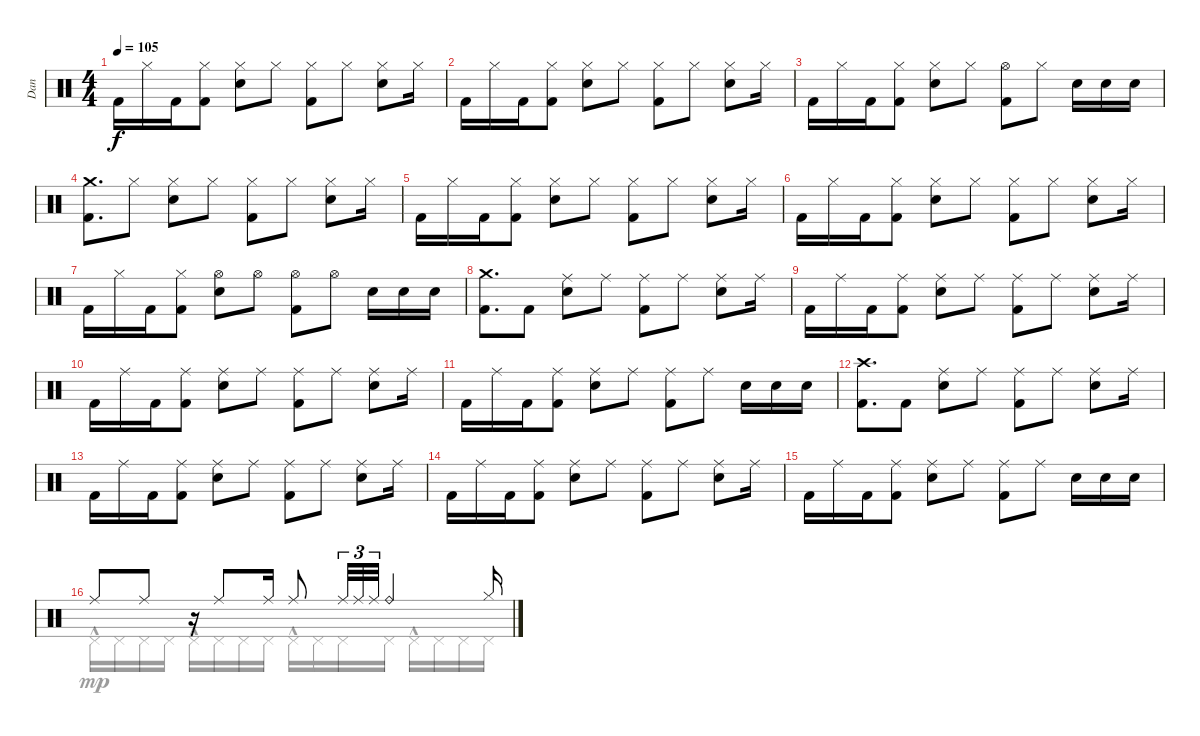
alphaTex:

\track ("Dan" "Dan") {instrument percussion}
\staff {score}
\articulation defaults
\voice
\ts (4 4)
\tempo 105
\clef neutral
\ks c "Kick (hit) 2".16{dy f} "Hi-Hat (closed)".16 "Kick (hit) 2".16
("Hi-Hat (closed)" "Kick (hit) 2").8 ("Hi-Hat (closed)" "Snare (hit) 2").8 "Hi-Hat (closed)".8 ("Hi-Hat (closed)" "Kick (hit) 2").8 "Hi-Hat (closed)".8 ("Hi-Hat (closed)" "Snare (hit) 2").8 "Hi-Hat (closed)".16 |
"Kick (hit) 2".16 "Hi-Hat (closed)".16 "Kick (hit) 2".16 ("Hi-Hat (closed)" "Kick (hit) 2").8 ("Hi-Hat (closed)" "Snare (hit) 2").8 "Hi-Hat (closed)".8 ("Hi-Hat (closed)" "Kick (hit) 2").8 "Hi-Hat (closed)".8 ("Hi-Hat (closed)" "Snare (hit) 2").8 "Hi-Hat (closed)".16 |
"Kick (hit) 2".16 "Hi-Hat (closed)".16 "Kick (hit) 2".16 ("Hi-Hat (closed)" "Kick (hit) 2").8 ("Hi-Hat (closed)" "Snare (hit) 2").8 "Hi-Hat (closed)".8 ("Hi-Hat (open)" "Kick (hit) 2").8 "Hi-Hat (closed)".8 "Snare (hit) 2".16 "Snare (hit) 2".16 "Snare (hit) 2".16 |
("Crash medium (hit)" "Kick (hit) 2").8{d} "Hi-Hat (closed)".8 ("Hi-Hat (closed)" "Snare (hit) 2").8 "Hi-Hat (closed)".8 ("Hi-Hat (closed)" "Kick (hit) 2").8 "Hi-Hat (closed)".8 ("Hi-Hat (closed)" "Snare (hit) 2").8 "Hi-Hat (closed)".16 |
"Kick (hit) 2".16 "Hi-Hat (closed)".16 "Kick (hit) 2".16 ("Hi-Hat (closed)" "Kick (hit) 2").8 ("Hi-Hat (closed)" "Snare (hit) 2").8 "Hi-Hat (closed)".8 ("Hi-Hat (closed)" "Kick (hit) 2").8 "Hi-Hat (closed)".8 ("Hi-Hat (closed)" "Snare (hit) 2").8 "Hi-Hat (closed)".16 |
"Kick (hit) 2".16 "Hi-Hat (closed)".16 "Kick (hit) 2".16 ("Hi-Hat (closed)" "Kick (hit) 2").8 ("Hi-Hat (closed)" "Snare (hit) 2").8 "Hi-Hat (closed)".8 ("Hi-Hat (closed)" "Kick (hit) 2").8 "Hi-Hat (closed)".8 ("Hi-Hat (closed)" "Snare (hit) 2").8 "Hi-Hat (closed)".16 |
"Kick (hit) 2".16 "Hi-Hat (closed)".16 "Kick (hit) 2".16 ("Hi-Hat (closed)" "Kick (hit) 2").8 ("Hi-Hat (open)" "Snare (hit) 2").8 "Hi-Hat (open)".8 ("Hi-Hat (open)" "Kick (hit) 2").8 "Hi-Hat (open)".8 "Snare (hit) 2".16 "Snare (hit) 2".16 "Snare (hit) 2".16 |
("Crash medium (hit)" "Kick (hit) 2").8{d} "Kick (hit) 2".8 ("Ride (middle)" "Snare (hit) 2").8 "Ride (middle)".8 ("Ride (middle)" "Kick (hit) 2").8 "Ride (middle)".8 ("Ride (middle)" "Snare (hit) 2").8 "Ride (middle)".16 |
"Kick (hit) 2".16 "Ride (middle)".16 "Kick (hit) 2".16 ("Ride (middle)" "Kick (hit) 2").8 ("Ride (middle)" "Snare (hit) 2").8 "Ride (middle)".8 ("Ride (middle)" "Kick (hit) 2").8 "Ride (middle)".8 ("Ride (middle)" "Snare (hit) 2").8 "Ride (middle)".16 |
"Kick (hit) 2".16 "Ride (middle)".16 "Kick (hit) 2".16 ("Ride (middle)" "Kick (hit) 2").8 ("Ride (middle)" "Snare (hit) 2").8 "Ride (middle)".8 ("Ride (middle)" "Kick (hit) 2").8 "Ride (middle)".8 ("Ride (middle)" "Snare (hit) 2").8 "Ride (middle)".16 |
"Kick (hit) 2".16 "Ride (middle)".16 "Kick (hit) 2".16 ("Ride (middle)" "Kick (hit) 2").8 ("Ride (middle)" "Snare (hit) 2").8 "Ride (middle)".8 ("Ride (middle)" "Kick (hit) 2").8 "Ride (middle)".8 "Snare (hit) 2".16 "Snare (hit) 2".16 "Snare (hit) 2".16 |
("Crash high (hit)" "Kick (hit) 2").8{d} "Kick (hit) 2".8 ("Ride (middle)" "Snare (hit) 2").8 "Ride (middle)".8 ("Ride (middle)" "Kick (hit) 2").8 "Ride (middle)".8 ("Ride (middle)" "Snare (hit) 2").8 "Ride (middle)".16 |
"Kick (hit) 2".16 "Ride (middle)".16 "Kick (hit) 2".16 ("Ride (middle)" "Kick (hit) 2").8 ("Ride (middle)" "Snare (hit) 2").8 "Ride (middle)".8 ("Ride (middle)" "Kick (hit) 2").8 "Ride (middle)".8 ("Ride (middle)" "Snare (hit) 2").8 "Ride (middle)".16 |
"Kick (hit) 2".16 "Ride (middle)".16 "Kick (hit) 2".16 ("Ride (middle)" "Kick (hit) 2").8 ("Ride (middle)" "Snare (hit) 2").8 "Ride (middle)".8 ("Ride (middle)" "Kick (hit) 2").8 "Ride (middle)".8 ("Ride (middle)" "Snare (hit) 2").8 "Ride (middle)".16 |
"Kick (hit) 2".16 "Ride (middle)".16 "Kick (hit) 2".16 ("Ride (middle)" "Kick (hit) 2").8 ("Ride (middle)" "Snare (hit) 2").8 "Ride (middle)".8 ("Ride (middle)" "Kick (hit) 2").8 "Ride (middle)".8 "Snare (hit) 2".16 "Snare (hit) 2".16 "Snare (hit) 2".16 |
"Ride (middle)".8 "Ride (middle)".8 r.16 "Ride (middle)".8 "Ride (middle)".16 "Ride (middle)".8 "Ride (middle)".32{tu (3 2)} "Ride (middle)".32{tu (3 2)} "Ride (middle)".32{tu (3 2)} "Ride (bell)".4 "Hi-Hat (closed)".16
\voice
\clef neutral
\ottava regular
\simile none
\ks c
|
|
|
|
|
|
|
|
|
|
|
|
|
|
|
"Pedal Hi-Hat (hit)"{hac}.16{dy mp} "Pedal Hi-Hat (hit)".16 "Pedal Hi-Hat (hit)".16 "Pedal Hi-Hat (hit)".16 "Pedal Hi-Hat (hit)"{hac}.16 "Pedal Hi-Hat (hit)".16 "Pedal Hi-Hat (hit)".16 "Pedal Hi-Hat (hit)".16 "Pedal Hi-Hat (hit)"{hac}.16 "Pedal Hi-Hat (hit)".16 "Pedal Hi-Hat (hit)".16 "Pedal Hi-Hat (hit)".16 "Pedal Hi-Hat (hit)"{hac}.16 "Pedal Hi-Hat (hit)".16 "Pedal Hi-Hat (hit)".16 "Pedal Hi-Hat (hit)".16
